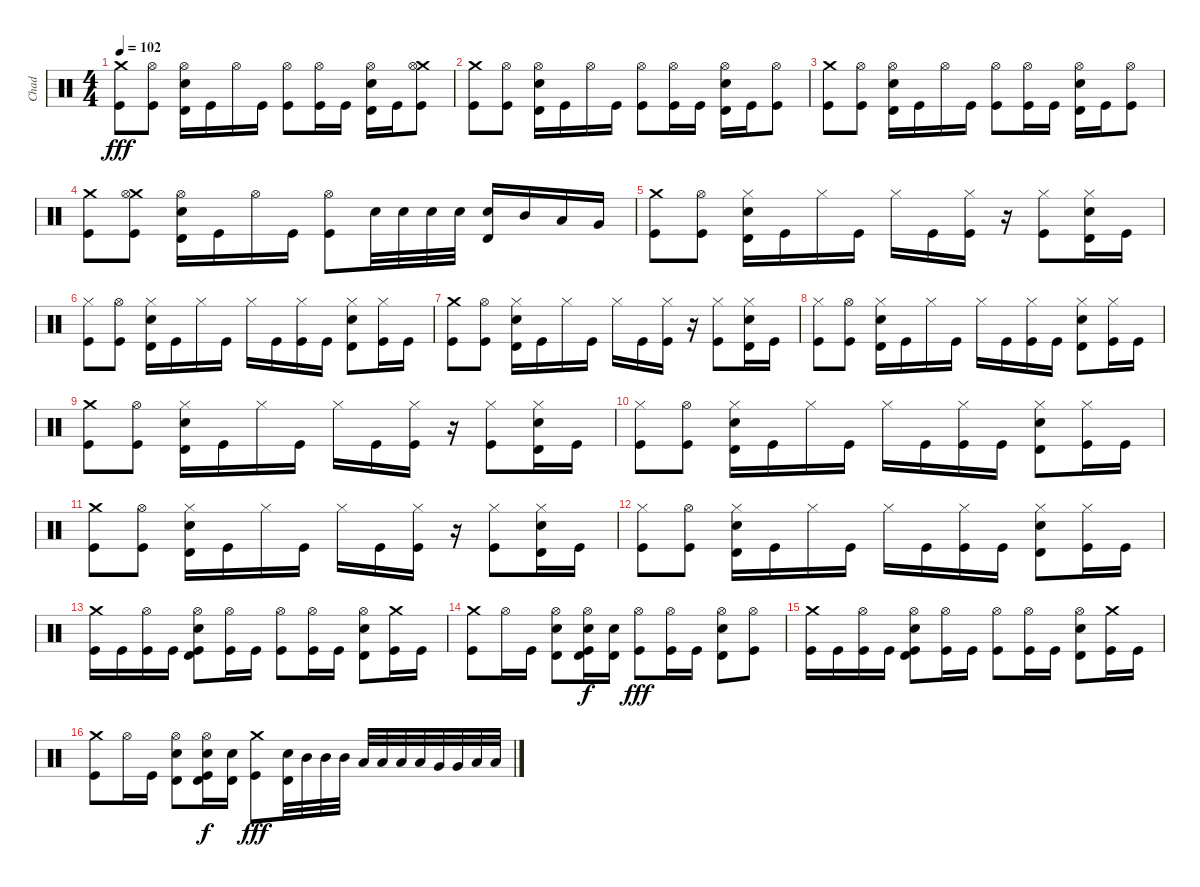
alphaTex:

\track ("Chad" "Chad") {instrument percussion}
\staff {score}
\articulation defaults
\ts (4 4)
\tempo 102
\clef neutral
\ks c
("Crash medium (hit)" "Kick (hit)").8{dy fff} ("Hi-Hat (open)" "Kick (hit)").8 ("Hi-Hat (open)" "Electric Snare (hit)" "Timbale high (hit)").16 "Kick (hit)".16 "Hi-Hat (open)".16 "Kick (hit)".16 ("Hi-Hat (open)" "Kick (hit)").8 ("Hi-Hat (open)" "Kick (hit)").16 "Kick (hit)".16 ("Hi-Hat (open)" "Electric Snare (hit)" "Timbale high (hit)").16 "Kick (hit)".16 ("Crash medium (hit)" "Hi-Hat (open)" "Kick (hit)").8 |
("Crash medium (hit)" "Kick (hit)").8 ("Hi-Hat (open)" "Kick (hit)").8 ("Hi-Hat (open)" "Electric Snare (hit)" "Timbale high (hit)").16 "Kick (hit)".16 "Hi-Hat (open)".16 "Kick (hit)".16 ("Hi-Hat (open)" "Kick (hit)").8 ("Hi-Hat (open)" "Kick (hit)").16 "Kick (hit)".16 ("Hi-Hat (open)" "Electric Snare (hit)" "Timbale high (hit)").16 "Kick (hit)".16 ("Hi-Hat (open)" "Kick (hit)").8 |
("Crash medium (hit)" "Kick (hit)").8 ("Hi-Hat (open)" "Kick (hit)").8 ("Hi-Hat (open)" "Electric Snare (hit)" "Timbale high (hit)").16 "Kick (hit)".16 "Hi-Hat (open)".16 "Kick (hit)".16 ("Hi-Hat (open)" "Kick (hit)").8 ("Hi-Hat (open)" "Kick (hit)").16 "Kick (hit)".16 ("Hi-Hat (open)" "Electric Snare (hit)" "Timbale high (hit)").16 "Kick (hit)".16 ("Hi-Hat (open)" "Kick (hit)").8 |
("Crash medium (hit)" "Kick (hit)").8 ("Crash medium (hit)" "Hi-Hat (open)" "Kick (hit)").8 ("Hi-Hat (open)" "Electric Snare (hit)" "Timbale high (hit)").16 "Kick (hit)".16 "Hi-Hat (open)".16 "Kick (hit)".16 ("Hi-Hat (open)" "Kick (hit)").8 "Electric Snare (hit)".32 "Electric Snare (hit)".32 "Electric Snare (hit)".32 "Electric Snare (hit)".32 ("Electric Snare (hit)" "Timbale high (hit)").16 "Mid Tom (hit)".16 "Low Tom (hit)".16 "Very Low Tom (hit)".16 |
("Crash medium (hit)" "Kick (hit)").8 ("Hi-Hat (open)" "Kick (hit)").8 ("Hi-Hat (closed)" "Electric Snare (hit)" "Timbale high (hit)").16 "Kick (hit)".16 "Hi-Hat (closed)".16 "Kick (hit)".16 "Hi-Hat (closed)".16 "Kick (hit)".16 ("Hi-Hat (closed)" "Kick (hit)").16 r.16 ("Hi-Hat (closed)" "Kick (hit)").8 ("Hi-Hat (closed)" "Electric Snare (hit)" "Timbale high (hit)").16 "Kick (hit)".16 |
("Hi-Hat (closed)" "Kick (hit)").8 ("Hi-Hat (open)" "Kick (hit)").8 ("Hi-Hat (closed)" "Electric Snare (hit)" "Timbale high (hit)").16 "Kick (hit)".16 "Hi-Hat (closed)".16 "Kick (hit)".16 "Hi-Hat (closed)".16 "Kick (hit)".16 ("Hi-Hat (closed)" "Kick (hit)").16 "Kick (hit)".16 ("Hi-Hat (closed)" "Electric Snare (hit)" "Timbale high (hit)").8 ("Hi-Hat (closed)" "Kick (hit)").16 "Kick (hit)".16 |
("Crash medium (hit)" "Kick (hit)").8 ("Hi-Hat (open)" "Kick (hit)").8 ("Hi-Hat (closed)" "Electric Snare (hit)" "Timbale high (hit)").16 "Kick (hit)".16 "Hi-Hat (closed)".16 "Kick (hit)".16 "Hi-Hat (closed)".16 "Kick (hit)".16 ("Hi-Hat (closed)" "Kick (hit)").16 r.16 ("Hi-Hat (closed)" "Kick (hit)").8 ("Hi-Hat (closed)" "Electric Snare (hit)" "Timbale high (hit)").16 "Kick (hit)".16 |
("Hi-Hat (closed)" "Kick (hit)").8 ("Hi-Hat (open)" "Kick (hit)").8 ("Hi-Hat (closed)" "Electric Snare (hit)" "Timbale high (hit)").16 "Kick (hit)".16 "Hi-Hat (closed)".16 "Kick (hit)".16 "Hi-Hat (closed)".16 "Kick (hit)".16 ("Hi-Hat (closed)" "Kick (hit)").16 "Kick (hit)".16 ("Hi-Hat (closed)" "Electric Snare (hit)" "Timbale high (hit)").8 ("Hi-Hat (closed)" "Kick (hit)").16 "Kick (hit)".16 |
("Crash medium (hit)" "Kick (hit)").8 ("Hi-Hat (open)" "Kick (hit)").8 ("Hi-Hat (closed)" "Electric Snare (hit)" "Timbale high (hit)").16 "Kick (hit)".16 "Hi-Hat (closed)".16 "Kick (hit)".16 "Hi-Hat (closed)".16 "Kick (hit)".16 ("Hi-Hat (closed)" "Kick (hit)").16 r.16 ("Hi-Hat (closed)" "Kick (hit)").8 ("Hi-Hat (closed)" "Electric Snare (hit)" "Timbale high (hit)").16 "Kick (hit)".16 |
("Hi-Hat (closed)" "Kick (hit)").8 ("Hi-Hat (open)" "Kick (hit)").8 ("Hi-Hat (closed)" "Electric Snare (hit)" "Timbale high (hit)").16 "Kick (hit)".16 "Hi-Hat (closed)".16 "Kick (hit)".16 "Hi-Hat (closed)".16 "Kick (hit)".16 ("Hi-Hat (closed)" "Kick (hit)").16 "Kick (hit)".16 ("Hi-Hat (closed)" "Electric Snare (hit)" "Timbale high (hit)").8 ("Hi-Hat (closed)" "Kick (hit)").16 "Kick (hit)".16 |
("Crash medium (hit)" "Kick (hit)").8 ("Hi-Hat (open)" "Kick (hit)").8 ("Hi-Hat (closed)" "Electric Snare (hit)" "Timbale high (hit)").16 "Kick (hit)".16 "Hi-Hat (closed)".16 "Kick (hit)".16 "Hi-Hat (closed)".16 "Kick (hit)".16 ("Hi-Hat (closed)" "Kick (hit)").16 r.16 ("Hi-Hat (closed)" "Kick (hit)").8 ("Hi-Hat (closed)" "Electric Snare (hit)" "Timbale high (hit)").16 "Kick (hit)".16 |
("Hi-Hat (closed)" "Kick (hit)").8 ("Hi-Hat (open)" "Kick (hit)").8 ("Hi-Hat (closed)" "Electric Snare (hit)" "Timbale high (hit)").16 "Kick (hit)".16 "Hi-Hat (closed)".16 "Kick (hit)".16 "Hi-Hat (closed)".16 "Kick (hit)".16 ("Hi-Hat (closed)" "Kick (hit)").16 "Kick (hit)".16 ("Hi-Hat (closed)" "Electric Snare (hit)" "Timbale high (hit)").8 ("Hi-Hat (closed)" "Kick (hit)").16 "Kick (hit)".16 |
("Crash medium (hit)" "Kick (hit)").16 "Kick (hit)".16 ("Hi-Hat (open)" "Kick (hit)").16 "Kick (hit)".16 ("Hi-Hat (open)" "Electric Snare (hit)" "Timbale high (hit)" "Kick (hit)").8 ("Hi-Hat (open)" "Kick (hit)").16 "Kick (hit)".16 ("Hi-Hat (open)" "Kick (hit)").8 ("Hi-Hat (open)" "Kick (hit)").16 "Kick (hit)".16 ("Hi-Hat (open)" "Electric Snare (hit)" "Timbale high (hit)").8 ("Crash medium (hit)" "Kick (hit)").16 "Kick (hit)".16 |
("Crash medium (hit)" "Kick (hit)").8 "Hi-Hat (open)".16 "Kick (hit)".16 ("Hi-Hat (open)" "Electric Snare (hit)" "Timbale high (hit)").8 ("Hi-Hat (open)" "Electric Snare (hit)" "Timbale high (hit)" "Kick (hit)").16{dy f} ("Electric Snare (hit)" "Timbale high (hit)").16 ("Hi-Hat (open)" "Kick (hit)").8{dy fff} ("Hi-Hat (open)" "Kick (hit)").16 "Kick (hit)".16 ("Hi-Hat (open)" "Electric Snare (hit)" "Timbale high (hit)").8 ("Hi-Hat (open)" "Kick (hit)").8 |
("Crash medium (hit)" "Kick (hit)").16 "Kick (hit)".16 ("Hi-Hat (open)" "Kick (hit)").16 "Kick (hit)".16 ("Hi-Hat (open)" "Electric Snare (hit)" "Timbale high (hit)" "Kick (hit)").8 ("Hi-Hat (open)" "Kick (hit)").16 "Kick (hit)".16 ("Hi-Hat (open)" "Kick (hit)").8 ("Hi-Hat (open)" "Kick (hit)").16 "Kick (hit)".16 ("Hi-Hat (open)" "Electric Snare (hit)" "Timbale high (hit)").8 ("Crash medium (hit)" "Kick (hit)").16 "Kick (hit)".16 |
("Crash medium (hit)" "Kick (hit)").8 "Hi-Hat (open)".16 "Kick (hit)".16 ("Hi-Hat (open)" "Electric Snare (hit)" "Timbale high (hit)").8 ("Hi-Hat (open)" "Electric Snare (hit)" "Timbale high (hit)" "Kick (hit)").16{dy f} ("Electric Snare (hit)" "Timbale high (hit)").16 ("Crash medium (hit)" "Kick (hit)").8{dy fff} ("Electric Snare (hit)" "Timbale high (hit)").32 "Mid Tom (hit)".32 "Mid Tom (hit)".32 "Mid Tom (hit)".32 "Low Tom (hit)".32 "Low Tom (hit)".32 "Low Tom (hit)".32 "Low Tom (hit)".32 "Very Low Tom (hit)".32 "Very Low Tom (hit)".32 "Low Floor Tom (hit)".32 "Low Floor Tom (hit)".32
